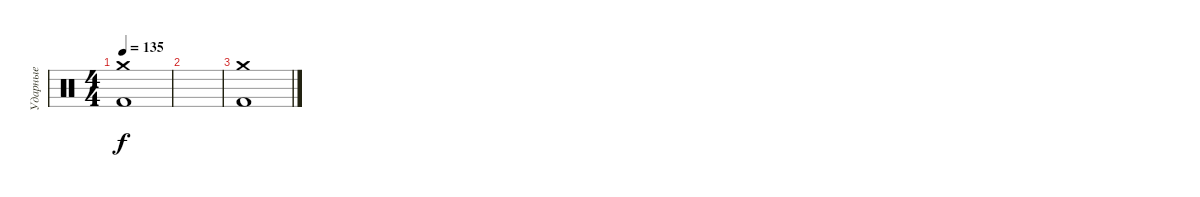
\track ("Ударные" "Ударные") {instrument percussion}
\staff {score}
\articulation defaults
\ts (4 4)
\tempo 135
\clef neutral
\ks c
("Crash medium (hit)" "Kick (hit) 2").1{dy f} |
|
("Crash medium (hit)" "Kick (hit) 2").1
